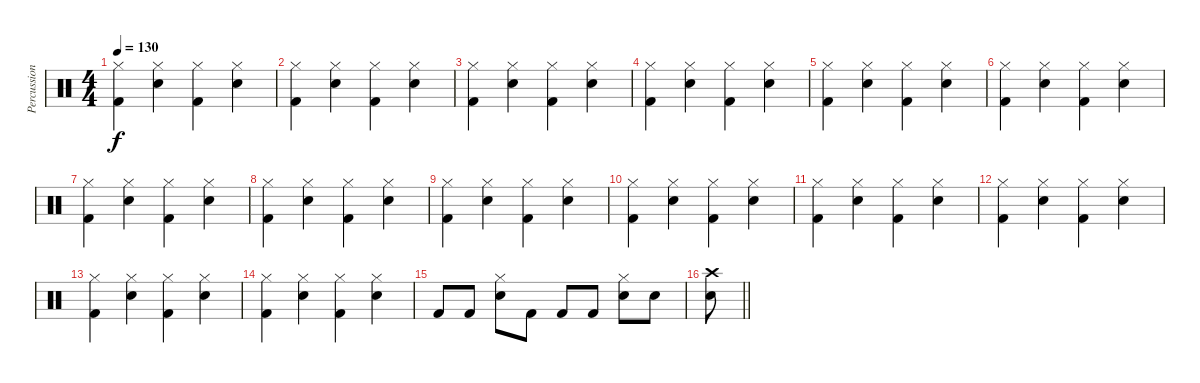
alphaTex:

\track ("Percussion" "Percussion") {instrument percussion}
\staff {score}
\articulation defaults
\ts (4 4)
\tempo 130
\clef neutral
\ks c
("Kick (hit) 2" "Hi-Hat (closed)").4{dy f} ("Electric Snare (hit)" "Hi-Hat (closed)").4 ("Kick (hit) 2" "Hi-Hat (closed)").4 ("Electric Snare (hit)" "Hi-Hat (closed)").4 |
("Kick (hit) 2" "Hi-Hat (closed)").4 ("Electric Snare (hit)" "Hi-Hat (closed)").4 ("Kick (hit) 2" "Hi-Hat (closed)").4 ("Electric Snare (hit)" "Hi-Hat (closed)").4 |
("Kick (hit) 2" "Hi-Hat (closed)").4 ("Electric Snare (hit)" "Hi-Hat (closed)").4 ("Kick (hit) 2" "Hi-Hat (closed)").4 ("Electric Snare (hit)" "Hi-Hat (closed)").4 |
("Kick (hit) 2" "Hi-Hat (closed)").4 ("Electric Snare (hit)" "Hi-Hat (closed)").4 ("Kick (hit) 2" "Hi-Hat (closed)").4 ("Electric Snare (hit)" "Hi-Hat (closed)").4 |
("Kick (hit) 2" "Hi-Hat (closed)").4 ("Electric Snare (hit)" "Hi-Hat (closed)").4 ("Kick (hit) 2" "Hi-Hat (closed)").4 ("Electric Snare (hit)" "Hi-Hat (closed)").4 |
("Kick (hit) 2" "Hi-Hat (closed)").4 ("Electric Snare (hit)" "Hi-Hat (closed)").4 ("Kick (hit) 2" "Hi-Hat (closed)").4 ("Electric Snare (hit)" "Hi-Hat (closed)").4 |
("Kick (hit) 2" "Hi-Hat (closed)").4 ("Electric Snare (hit)" "Hi-Hat (closed)").4 ("Kick (hit) 2" "Hi-Hat (closed)").4 ("Electric Snare (hit)" "Hi-Hat (closed)").4 |
("Kick (hit) 2" "Hi-Hat (closed)").4 ("Electric Snare (hit)" "Hi-Hat (closed)").4 ("Kick (hit) 2" "Hi-Hat (closed)").4 ("Electric Snare (hit)" "Hi-Hat (closed)").4 |
("Kick (hit) 2" "Hi-Hat (closed)").4 ("Electric Snare (hit)" "Hi-Hat (closed)").4 ("Kick (hit) 2" "Hi-Hat (closed)").4 ("Electric Snare (hit)" "Hi-Hat (closed)").4 |
("Kick (hit) 2" "Hi-Hat (closed)").4 ("Electric Snare (hit)" "Hi-Hat (closed)").4 ("Kick (hit) 2" "Hi-Hat (closed)").4 ("Electric Snare (hit)" "Hi-Hat (closed)").4 |
("Kick (hit) 2" "Hi-Hat (closed)").4 ("Electric Snare (hit)" "Hi-Hat (closed)").4 ("Kick (hit) 2" "Hi-Hat (closed)").4 ("Electric Snare (hit)" "Hi-Hat (closed)").4 |
("Kick (hit) 2" "Hi-Hat (closed)").4 ("Electric Snare (hit)" "Hi-Hat (closed)").4 ("Kick (hit) 2" "Hi-Hat (closed)").4 ("Electric Snare (hit)" "Hi-Hat (closed)").4 |
("Kick (hit) 2" "Hi-Hat (closed)").4 ("Electric Snare (hit)" "Hi-Hat (closed)").4 ("Kick (hit) 2" "Hi-Hat (closed)").4 ("Electric Snare (hit)" "Hi-Hat (closed)").4 |
("Kick (hit) 2" "Hi-Hat (closed)").4 ("Electric Snare (hit)" "Hi-Hat (closed)").4 ("Kick (hit) 2" "Hi-Hat (closed)").4 ("Electric Snare (hit)" "Hi-Hat (closed)").4 |
"Kick (hit) 2".8 "Kick (hit) 2".8 ("Electric Snare (hit)" "Hi-Hat (closed)").8 "Kick (hit) 2".8 "Kick (hit) 2".8 "Kick (hit) 2".8 ("Electric Snare (hit)" "Hi-Hat (closed)").8 "Electric Snare (hit)".8 |
\barLineRight lightlight
("Electric Snare (hit)" "Crash high (hit)").8
